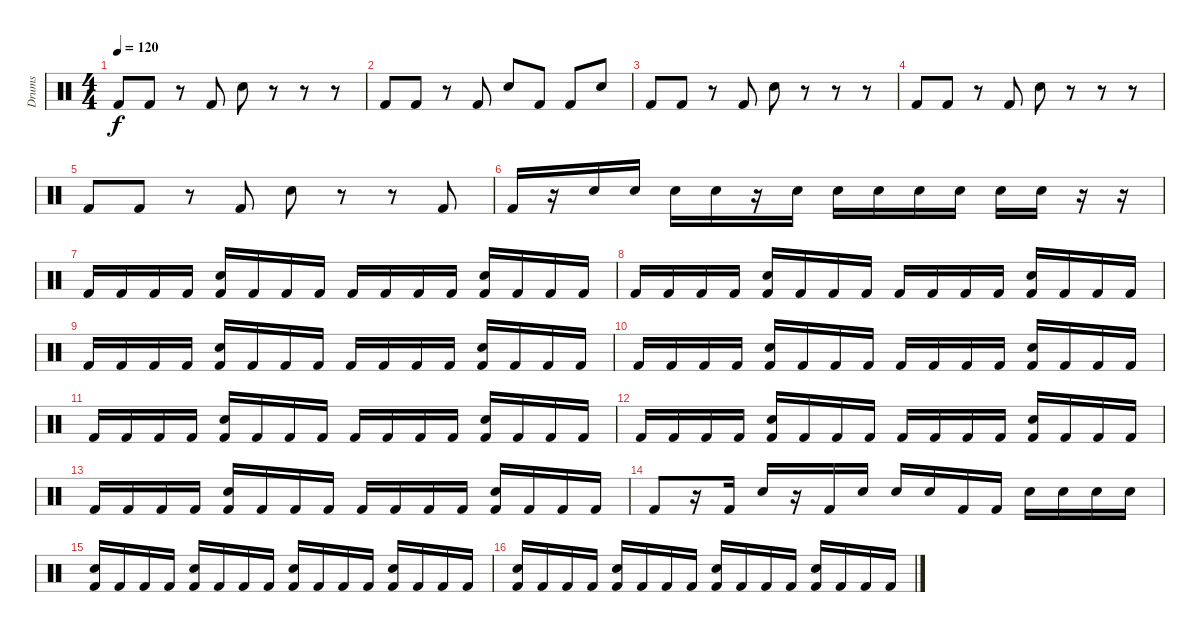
\track ("Drums" "Drums") {instrument percussion}
\staff {score}
\articulation defaults
\ts (4 4)
\tempo 120
\clef neutral
\ks c "Kick (hit) 2".8{dy f} "Kick (hit) 2".8
r.8 "Kick (hit) 2".8 "Electric Snare (hit)".8 r.8 r.8 r.8 |
"Kick (hit) 2".8 "Kick (hit) 2".8 r.8 "Kick (hit) 2".8 "Electric Snare (hit)".8 "Kick (hit) 2".8 "Kick (hit) 2".8 "Electric Snare (hit)".8 |
"Kick (hit) 2".8 "Kick (hit) 2".8 r.8 "Kick (hit) 2".8 "Electric Snare (hit)".8 r.8 r.8 r.8 |
"Kick (hit) 2".8 "Kick (hit) 2".8 r.8 "Kick (hit) 2".8 "Electric Snare (hit)".8 r.8 r.8 r.8 |
"Kick (hit) 2".8 "Kick (hit) 2".8 r.8 "Kick (hit) 2".8 "Electric Snare (hit)".8 r.8 r.8 "Kick (hit) 2".8 |
"Kick (hit) 2".16 r.16 "Electric Snare (hit)".16 "Electric Snare (hit)".16 "Electric Snare (hit)".16 "Electric Snare (hit)".16 r.16 "Electric Snare (hit)".16 "Electric Snare (hit)".16 "Electric Snare (hit)".16 "Electric Snare (hit)".16 "Electric Snare (hit)".16 "Electric Snare (hit)".16 "Electric Snare (hit)".16 r.16 r.16 |
"Kick (hit) 2".16 "Kick (hit) 2".16 "Kick (hit) 2".16 "Kick (hit) 2".16 ("Kick (hit) 2" "Electric Snare (hit)").16 "Kick (hit) 2".16 "Kick (hit) 2".16 "Kick (hit) 2".16 "Kick (hit) 2".16 "Kick (hit) 2".16 "Kick (hit) 2".16 "Kick (hit) 2".16 ("Kick (hit) 2" "Electric Snare (hit)").16 "Kick (hit) 2".16 "Kick (hit) 2".16 "Kick (hit) 2".16 |
"Kick (hit) 2".16 "Kick (hit) 2".16 "Kick (hit) 2".16 "Kick (hit) 2".16 ("Kick (hit) 2" "Electric Snare (hit)").16 "Kick (hit) 2".16 "Kick (hit) 2".16 "Kick (hit) 2".16 "Kick (hit) 2".16 "Kick (hit) 2".16 "Kick (hit) 2".16 "Kick (hit) 2".16 ("Kick (hit) 2" "Electric Snare (hit)").16 "Kick (hit) 2".16 "Kick (hit) 2".16 "Kick (hit) 2".16 |
"Kick (hit) 2".16 "Kick (hit) 2".16 "Kick (hit) 2".16 "Kick (hit) 2".16 ("Kick (hit) 2" "Electric Snare (hit)").16 "Kick (hit) 2".16 "Kick (hit) 2".16 "Kick (hit) 2".16 "Kick (hit) 2".16 "Kick (hit) 2".16 "Kick (hit) 2".16 "Kick (hit) 2".16 ("Kick (hit) 2" "Electric Snare (hit)").16 "Kick (hit) 2".16 "Kick (hit) 2".16 "Kick (hit) 2".16 |
"Kick (hit) 2".16 "Kick (hit) 2".16 "Kick (hit) 2".16 "Kick (hit) 2".16 ("Kick (hit) 2" "Electric Snare (hit)").16 "Kick (hit) 2".16 "Kick (hit) 2".16 "Kick (hit) 2".16 "Kick (hit) 2".16 "Kick (hit) 2".16 "Kick (hit) 2".16 "Kick (hit) 2".16 ("Kick (hit) 2" "Electric Snare (hit)").16 "Kick (hit) 2".16 "Kick (hit) 2".16 "Kick (hit) 2".16 |
"Kick (hit) 2".16 "Kick (hit) 2".16 "Kick (hit) 2".16 "Kick (hit) 2".16 ("Kick (hit) 2" "Electric Snare (hit)").16 "Kick (hit) 2".16 "Kick (hit) 2".16 "Kick (hit) 2".16 "Kick (hit) 2".16 "Kick (hit) 2".16 "Kick (hit) 2".16 "Kick (hit) 2".16 ("Kick (hit) 2" "Electric Snare (hit)").16 "Kick (hit) 2".16 "Kick (hit) 2".16 "Kick (hit) 2".16 |
"Kick (hit) 2".16 "Kick (hit) 2".16 "Kick (hit) 2".16 "Kick (hit) 2".16 ("Kick (hit) 2" "Electric Snare (hit)").16 "Kick (hit) 2".16 "Kick (hit) 2".16 "Kick (hit) 2".16 "Kick (hit) 2".16 "Kick (hit) 2".16 "Kick (hit) 2".16 "Kick (hit) 2".16 ("Kick (hit) 2" "Electric Snare (hit)").16 "Kick (hit) 2".16 "Kick (hit) 2".16 "Kick (hit) 2".16 |
"Kick (hit) 2".16 "Kick (hit) 2".16 "Kick (hit) 2".16 "Kick (hit) 2".16 ("Kick (hit) 2" "Electric Snare (hit)").16 "Kick (hit) 2".16 "Kick (hit) 2".16 "Kick (hit) 2".16 "Kick (hit) 2".16 "Kick (hit) 2".16 "Kick (hit) 2".16 "Kick (hit) 2".16 ("Kick (hit) 2" "Electric Snare (hit)").16 "Kick (hit) 2".16 "Kick (hit) 2".16 "Kick (hit) 2".16 |
"Kick (hit) 2".8 r.16 "Kick (hit) 2".16 "Electric Snare (hit)".16 r.16 "Kick (hit) 2".16 "Electric Snare (hit)".16 "Electric Snare (hit)".16 "Electric Snare (hit)".16 "Kick (hit) 2".16 "Kick (hit) 2".16 "Electric Snare (hit)".16 "Electric Snare (hit)".16 "Electric Snare (hit)".16 "Electric Snare (hit)".16 |
("Kick (hit) 2" "Electric Snare (hit)").16 "Kick (hit) 2".16 "Kick (hit) 2".16 "Kick (hit) 2".16 ("Kick (hit) 2" "Electric Snare (hit)").16 "Kick (hit) 2".16 "Kick (hit) 2".16 "Kick (hit) 2".16 ("Kick (hit) 2" "Electric Snare (hit)").16 "Kick (hit) 2".16 "Kick (hit) 2".16 "Kick (hit) 2".16 ("Kick (hit) 2" "Electric Snare (hit)").16 "Kick (hit) 2".16 "Kick (hit) 2".16 "Kick (hit) 2".16 |
("Kick (hit) 2" "Electric Snare (hit)").16 "Kick (hit) 2".16 "Kick (hit) 2".16 "Kick (hit) 2".16 ("Kick (hit) 2" "Electric Snare (hit)").16 "Kick (hit) 2".16 "Kick (hit) 2".16 "Kick (hit) 2".16 ("Kick (hit) 2" "Electric Snare (hit)").16 "Kick (hit) 2".16 "Kick (hit) 2".16 "Kick (hit) 2".16 ("Kick (hit) 2" "Electric Snare (hit)").16 "Kick (hit) 2".16 "Kick (hit) 2".16 "Kick (hit) 2".16
